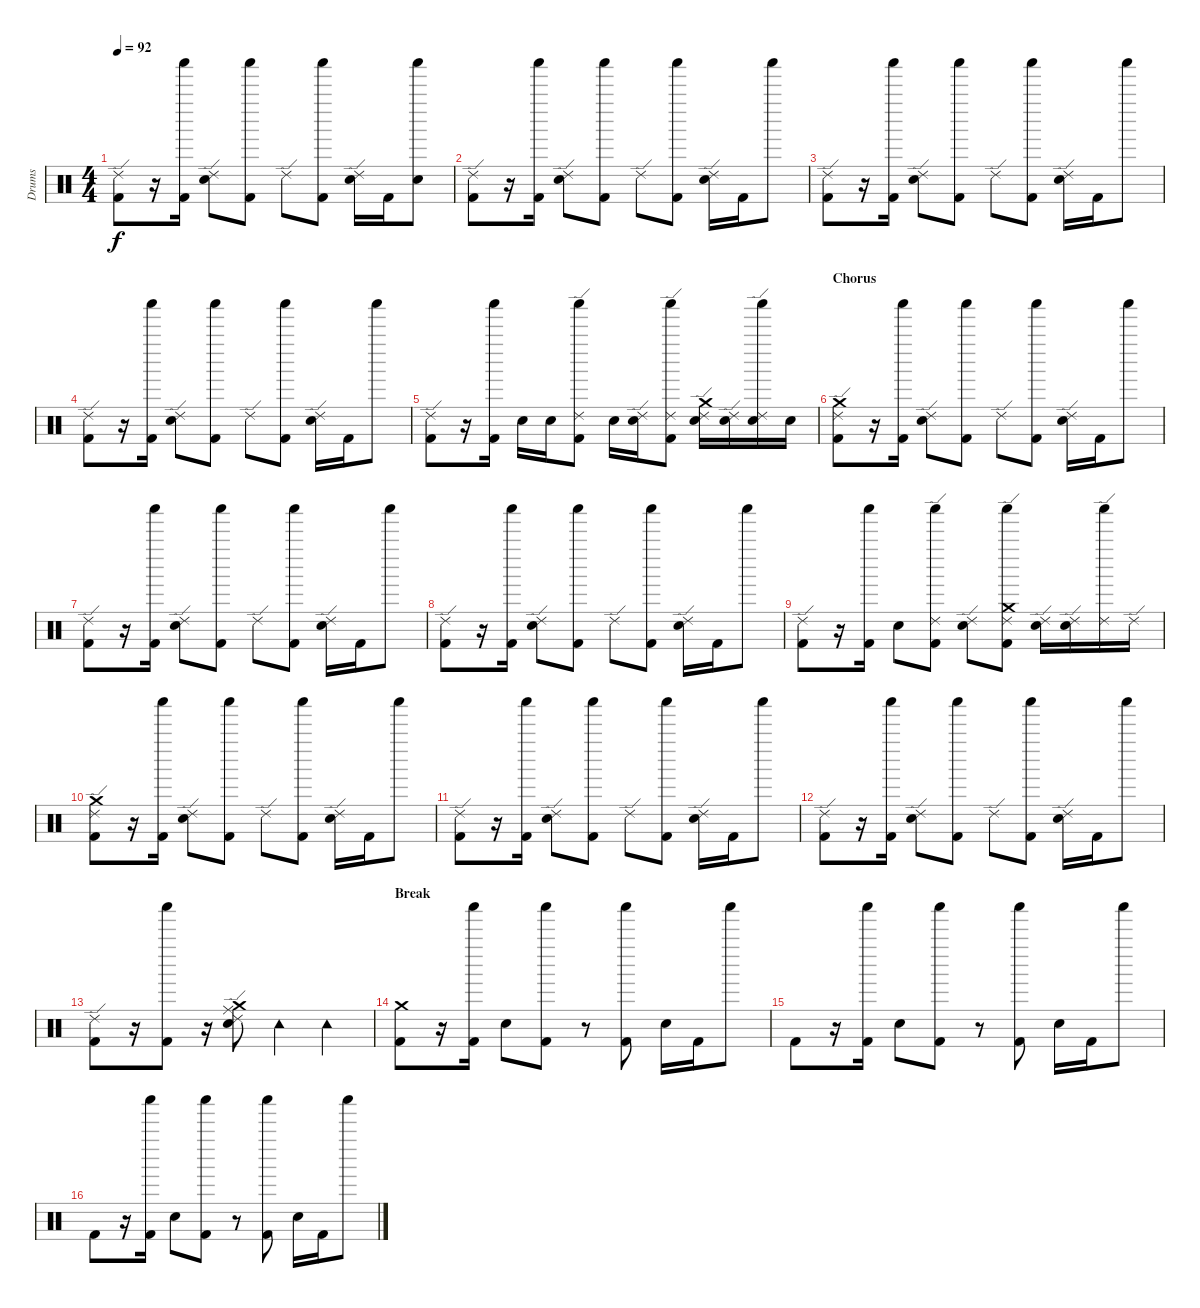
\track ("Drums" "Drums") {instrument percussion}
\staff {score}
\articulation defaults
\ts (4 4)
\tempo 92
\clef neutral
\ks c
("Ride (edge) 2" "Kick (hit) 2").8{dy f} r.16 ("Shaker (hit)" "Kick (hit) 2").16 ("Ride (edge) 2" "Electric Snare (hit)").8 ("Shaker (hit)" "Kick (hit) 2").8 "Ride (edge) 2".8 ("Shaker (hit)" "Kick (hit) 2").8 ("Ride (edge) 2" "Electric Snare (hit)").16 "Kick (hit) 2".16 ("Shaker (hit)" "Electric Snare (hit)").8 |
("Ride (edge) 2" "Kick (hit) 2").8 r.16 ("Shaker (hit)" "Kick (hit) 2").16 ("Ride (edge) 2" "Electric Snare (hit)").8 ("Shaker (hit)" "Kick (hit) 2").8 "Ride (edge) 2".8 ("Shaker (hit)" "Kick (hit) 2").8 ("Ride (edge) 2" "Electric Snare (hit)").16 "Kick (hit) 2".16 "Shaker (hit)".8 |
("Ride (edge) 2" "Kick (hit) 2").8 r.16 ("Shaker (hit)" "Kick (hit) 2").16 ("Ride (edge) 2" "Electric Snare (hit)").8 ("Shaker (hit)" "Kick (hit) 2").8 "Ride (edge) 2".8 ("Shaker (hit)" "Kick (hit) 2").8 ("Ride (edge) 2" "Electric Snare (hit)").16 "Kick (hit) 2".16 "Shaker (hit)".8 |
("Ride (edge) 2" "Kick (hit) 2").8 r.16 ("Shaker (hit)" "Kick (hit) 2").16 ("Ride (edge) 2" "Electric Snare (hit)").8 ("Shaker (hit)" "Kick (hit) 2").8 "Ride (edge) 2".8 ("Shaker (hit)" "Kick (hit) 2").8 ("Ride (edge) 2" "Electric Snare (hit)").16 "Kick (hit) 2".16 "Shaker (hit)".8 |
("Ride (edge) 2" "Kick (hit) 2").8 r.16 ("Shaker (hit)" "Kick (hit) 2").16 "Electric Snare (hit)".16 "Electric Snare (hit)".16 ("Ride (edge) 2" "Shaker (hit)" "Kick (hit) 2").8 "Electric Snare (hit)".16 ("Ride (edge) 2" "Electric Snare (hit)").16 ("Ride (edge) 2" "Shaker (hit)" "Kick (hit) 2").8 ("Ride (edge) 2" "Crash medium (hit)" "Electric Snare (hit)").16 ("Ride (edge) 2" "Electric Snare (hit)").16 ("Ride (edge) 2" "Shaker (hit)" "Electric Snare (hit)").16 "Electric Snare (hit)".16 |
\section ("" "Chorus")
("Ride (edge) 2" "Crash medium (hit)" "Kick (hit) 2").8 r.16 ("Shaker (hit)" "Kick (hit) 2").16 ("Ride (edge) 2" "Electric Snare (hit)").8 ("Shaker (hit)" "Kick (hit) 2").8 "Ride (edge) 2".8 ("Shaker (hit)" "Kick (hit) 2").8 ("Ride (edge) 2" "Electric Snare (hit)").16 "Kick (hit) 2".16 "Shaker (hit)".8 |
("Ride (edge) 2" "Kick (hit) 2").8 r.16 ("Shaker (hit)" "Kick (hit) 2").16 ("Ride (edge) 2" "Electric Snare (hit)").8 ("Shaker (hit)" "Kick (hit) 2").8 "Ride (edge) 2".8 ("Shaker (hit)" "Kick (hit) 2").8 ("Ride (edge) 2" "Electric Snare (hit)").16 "Kick (hit) 2".16 "Shaker (hit)".8 |
("Ride (edge) 2" "Kick (hit) 2").8 r.16 ("Shaker (hit)" "Kick (hit) 2").16 ("Ride (edge) 2" "Electric Snare (hit)").8 ("Shaker (hit)" "Kick (hit) 2").8 "Ride (edge) 2".8 ("Shaker (hit)" "Kick (hit) 2").8 ("Ride (edge) 2" "Electric Snare (hit)").16 "Kick (hit) 2".16 "Shaker (hit)".8 |
("Ride (edge) 2" "Kick (hit) 2").8 r.16 ("Shaker (hit)" "Kick (hit) 2").16 "Electric Snare (hit)".8 ("Ride (edge) 2" "Shaker (hit)" "Kick (hit) 2").8 ("Ride (edge) 2" "Electric Snare (hit)").8 ("Ride (edge) 2" "Crash medium (hit)" "Shaker (hit)" "Kick (hit) 2").8 ("Ride (edge) 2" "Electric Snare (hit)").16 ("Ride (edge) 2" "Electric Snare (hit)").16 ("Ride (edge) 2" "Shaker (hit)").16 "Ride (edge) 2".16 |
("Ride (edge) 2" "Crash medium (hit)" "Kick (hit) 2").8 r.16 ("Shaker (hit)" "Kick (hit) 2").16 ("Ride (edge) 2" "Electric Snare (hit)").8 ("Shaker (hit)" "Kick (hit) 2").8 "Ride (edge) 2".8 ("Shaker (hit)" "Kick (hit) 2").8 ("Ride (edge) 2" "Electric Snare (hit)").16 "Kick (hit) 2".16 "Shaker (hit)".8 |
("Ride (edge) 2" "Kick (hit) 2").8 r.16 ("Shaker (hit)" "Kick (hit) 2").16 ("Ride (edge) 2" "Electric Snare (hit)").8 ("Shaker (hit)" "Kick (hit) 2").8 "Ride (edge) 2".8 ("Shaker (hit)" "Kick (hit) 2").8 ("Ride (edge) 2" "Electric Snare (hit)").16 "Kick (hit) 2".16 "Shaker (hit)".8 |
("Ride (edge) 2" "Kick (hit) 2").8 r.16 ("Shaker (hit)" "Kick (hit) 2").16 ("Ride (edge) 2" "Electric Snare (hit)").8 ("Shaker (hit)" "Kick (hit) 2").8 "Ride (edge) 2".8 ("Shaker (hit)" "Kick (hit) 2").8 ("Ride (edge) 2" "Electric Snare (hit)").16 "Kick (hit) 2".16 "Shaker (hit)".8 |
("Ride (edge) 2" "Kick (hit) 2").8 r.16 ("Shaker (hit)" "Kick (hit) 2").8 r.16 ("Ride (edge) 2" "Crash medium (hit)" "Ride (middle)" "Electric Snare (hit)").8 "Tambourine (hit)".4 "Tambourine (hit)".4 |
\section ("" "Break")
("Crash medium (hit)" "Kick (hit) 2").8 r.16 ("Shaker (hit)" "Kick (hit) 2").16 "Electric Snare (hit)".8 ("Shaker (hit)" "Kick (hit) 2").8 r.8 ("Shaker (hit)" "Kick (hit) 2").8 "Electric Snare (hit)".16 "Kick (hit) 2".16 "Shaker (hit)".8 |
"Kick (hit) 2".8 r.16 ("Shaker (hit)" "Kick (hit) 2").16 "Electric Snare (hit)".8 ("Shaker (hit)" "Kick (hit) 2").8 r.8 ("Shaker (hit)" "Kick (hit) 2").8 "Electric Snare (hit)".16 "Kick (hit) 2".16 "Shaker (hit)".8 |
"Kick (hit) 2".8 r.16 ("Shaker (hit)" "Kick (hit) 2").16 "Electric Snare (hit)".8 ("Shaker (hit)" "Kick (hit) 2").8 r.8 ("Shaker (hit)" "Kick (hit) 2").8 "Electric Snare (hit)".16 "Kick (hit) 2".16 "Shaker (hit)".8
